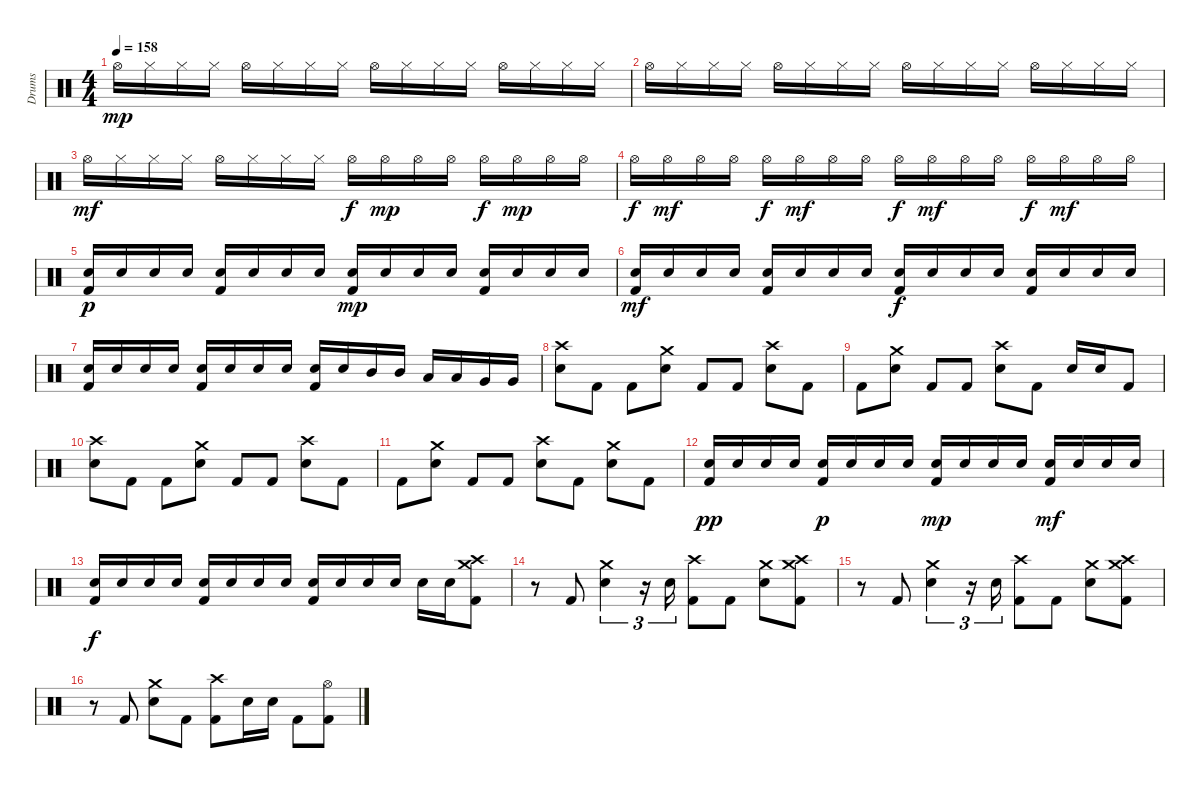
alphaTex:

\track ("Drums" "Drums") {instrument percussion}
\staff {score}
\articulation defaults
\ts (4 4)
\tempo 158
\clef neutral
\ks c "Hi-Hat (open)".16{dy mp} "Hi-Hat (closed)".16 "Hi-Hat (closed)".16 "Hi-Hat (closed)".16 "Hi-Hat (open)".16 "Hi-Hat (closed)".16 "Hi-Hat (closed)".16 "Hi-Hat (closed)".16 "Hi-Hat (open)".16 "Hi-Hat (closed)".16 "Hi-Hat (closed)".16 "Hi-Hat (closed)".16 "Hi-Hat (open)".16 "Hi-Hat (closed)".16 "Hi-Hat (closed)".16 "Hi-Hat (closed)".16
|
"Hi-Hat (open)".16 "Hi-Hat (closed)".16 "Hi-Hat (closed)".16 "Hi-Hat (closed)".16 "Hi-Hat (open)".16 "Hi-Hat (closed)".16 "Hi-Hat (closed)".16 "Hi-Hat (closed)".16 "Hi-Hat (open)".16 "Hi-Hat (closed)".16 "Hi-Hat (closed)".16 "Hi-Hat (closed)".16 "Hi-Hat (open)".16 "Hi-Hat (closed)".16 "Hi-Hat (closed)".16 "Hi-Hat (closed)".16 |
"Hi-Hat (open)".16{dy mf} "Hi-Hat (closed)".16 "Hi-Hat (closed)".16 "Hi-Hat (closed)".16 "Hi-Hat (open)".16 "Hi-Hat (closed)".16 "Hi-Hat (closed)".16 "Hi-Hat (closed)".16 "Hi-Hat (open)".16{dy f} "Hi-Hat (open)".16{dy mp} "Hi-Hat (open)".16 "Hi-Hat (open)".16 "Hi-Hat (open)".16{dy f} "Hi-Hat (open)".16{dy mp} "Hi-Hat (open)".16 "Hi-Hat (open)".16 |
"Hi-Hat (open)".16{dy f} "Hi-Hat (open)".16{dy mf} "Hi-Hat (open)".16 "Hi-Hat (open)".16 "Hi-Hat (open)".16{dy f} "Hi-Hat (open)".16{dy mf} "Hi-Hat (open)".16 "Hi-Hat (open)".16 "Hi-Hat (open)".16{dy f} "Hi-Hat (open)".16{dy mf} "Hi-Hat (open)".16 "Hi-Hat (open)".16 "Hi-Hat (open)".16{dy f} "Hi-Hat (open)".16{dy mf} "Hi-Hat (open)".16 "Hi-Hat (open)".16 |
("Snare (hit) 2" "Kick (hit) 2").16{dy p} "Snare (hit) 2".16 "Snare (hit) 2".16 "Snare (hit) 2".16 ("Snare (hit) 2" "Kick (hit) 2").16 "Snare (hit) 2".16 "Snare (hit) 2".16 "Snare (hit) 2".16 ("Snare (hit) 2" "Kick (hit) 2").16{dy mp} "Snare (hit) 2".16 "Snare (hit) 2".16 "Snare (hit) 2".16 ("Snare (hit) 2" "Kick (hit) 2").16 "Snare (hit) 2".16 "Snare (hit) 2".16 "Snare (hit) 2".16 |
("Snare (hit) 2" "Kick (hit) 2").16{dy mf} "Snare (hit) 2".16 "Snare (hit) 2".16 "Snare (hit) 2".16 ("Snare (hit) 2" "Kick (hit) 2").16 "Snare (hit) 2".16 "Snare (hit) 2".16 "Snare (hit) 2".16 ("Snare (hit) 2" "Kick (hit) 2").16{dy f} "Snare (hit) 2".16 "Snare (hit) 2".16 "Snare (hit) 2".16 ("Snare (hit) 2" "Kick (hit) 2").16 "Snare (hit) 2".16 "Snare (hit) 2".16 "Snare (hit) 2".16 |
("Snare (hit) 2" "Kick (hit) 2").16 "Snare (hit) 2".16 "Snare (hit) 2".16 "Snare (hit) 2".16 ("Snare (hit) 2" "Kick (hit) 2").16 "Snare (hit) 2".16 "Snare (hit) 2".16 "Snare (hit) 2".16 ("Snare (hit) 2" "Kick (hit) 2").16 "Snare (hit) 2".16 "Mid Tom (hit)".16 "Mid Tom (hit)".16 "Low Tom (hit)".16 "Low Tom (hit)".16 "Very Low Tom (hit)".16 "Very Low Tom (hit)".16 |
("Crash high (hit)" "Snare (hit) 2").8 "Kick (hit) 2".8 "Kick (hit) 2".8 ("Crash medium (hit)" "Snare (hit) 2").8 "Kick (hit) 2".8 "Kick (hit) 2".8 ("Crash high (hit)" "Snare (hit) 2").8 "Kick (hit) 2".8 |
"Kick (hit) 2".8 ("Crash medium (hit)" "Snare (hit) 2").8 "Kick (hit) 2".8 "Kick (hit) 2".8 ("Crash high (hit)" "Snare (hit) 2").8 "Kick (hit) 2".8 "Snare (hit) 2".16 "Snare (hit) 2".16 "Kick (hit) 2".8 |
("Crash high (hit)" "Snare (hit) 2").8 "Kick (hit) 2".8 "Kick (hit) 2".8 ("Crash medium (hit)" "Snare (hit) 2").8 "Kick (hit) 2".8 "Kick (hit) 2".8 ("Crash high (hit)" "Snare (hit) 2").8 "Kick (hit) 2".8 |
"Kick (hit) 2".8 ("Crash medium (hit)" "Snare (hit) 2").8 "Kick (hit) 2".8 "Kick (hit) 2".8 ("Crash high (hit)" "Snare (hit) 2").8 "Kick (hit) 2".8 ("Crash medium (hit)" "Snare (hit) 2").8 "Kick (hit) 2".8 |
("Snare (hit) 2" "Kick (hit) 2").16{dy pp} "Snare (hit) 2".16 "Snare (hit) 2".16 "Snare (hit) 2".16 ("Snare (hit) 2" "Kick (hit) 2").16{dy p} "Snare (hit) 2".16 "Snare (hit) 2".16 "Snare (hit) 2".16 ("Snare (hit) 2" "Kick (hit) 2").16{dy mp} "Snare (hit) 2".16 "Snare (hit) 2".16 "Snare (hit) 2".16 ("Snare (hit) 2" "Kick (hit) 2").16{dy mf} "Snare (hit) 2".16 "Snare (hit) 2".16 "Snare (hit) 2".16 |
("Snare (hit) 2" "Kick (hit) 2").16{dy f} "Snare (hit) 2".16 "Snare (hit) 2".16 "Snare (hit) 2".16 ("Snare (hit) 2" "Kick (hit) 2").16 "Snare (hit) 2".16 "Snare (hit) 2".16 "Snare (hit) 2".16 ("Snare (hit) 2" "Kick (hit) 2").16 "Snare (hit) 2".16 "Snare (hit) 2".16 "Snare (hit) 2".16 "Snare (hit) 2".16 "Snare (hit) 2".16 ("Crash high (hit)" "Crash medium (hit)" "Kick (hit) 2").8 |
r.8 "Kick (hit) 2".8 ("Crash medium (hit)" "Snare (hit) 2").4{tu (3 2)} r.16{tu (3 2)} "Snare (hit) 2".16{tu (3 2)} ("Crash high (hit)" "Kick (hit) 2").8 "Kick (hit) 2".8 ("Crash medium (hit)" "Snare (hit) 2").8 ("Crash high (hit)" "Crash medium (hit)" "Kick (hit) 2").8 |
r.8 "Kick (hit) 2".8 ("Crash medium (hit)" "Snare (hit) 2").4{tu (3 2)} r.16{tu (3 2)} "Snare (hit) 2".16{tu (3 2)} ("Crash high (hit)" "Kick (hit) 2").8 "Kick (hit) 2".8 ("Crash medium (hit)" "Snare (hit) 2").8 ("Crash high (hit)" "Crash medium (hit)" "Kick (hit) 2").8 |
r.8 "Kick (hit) 2".8 ("Crash medium (hit)" "Snare (hit) 2").8 "Kick (hit) 2".8 ("Crash high (hit)" "Kick (hit) 2").8 "Snare (hit) 2".16 "Snare (hit) 2".16 "Kick (hit) 2".8 ("Hi-Hat (open)" "Kick (hit) 2").8
